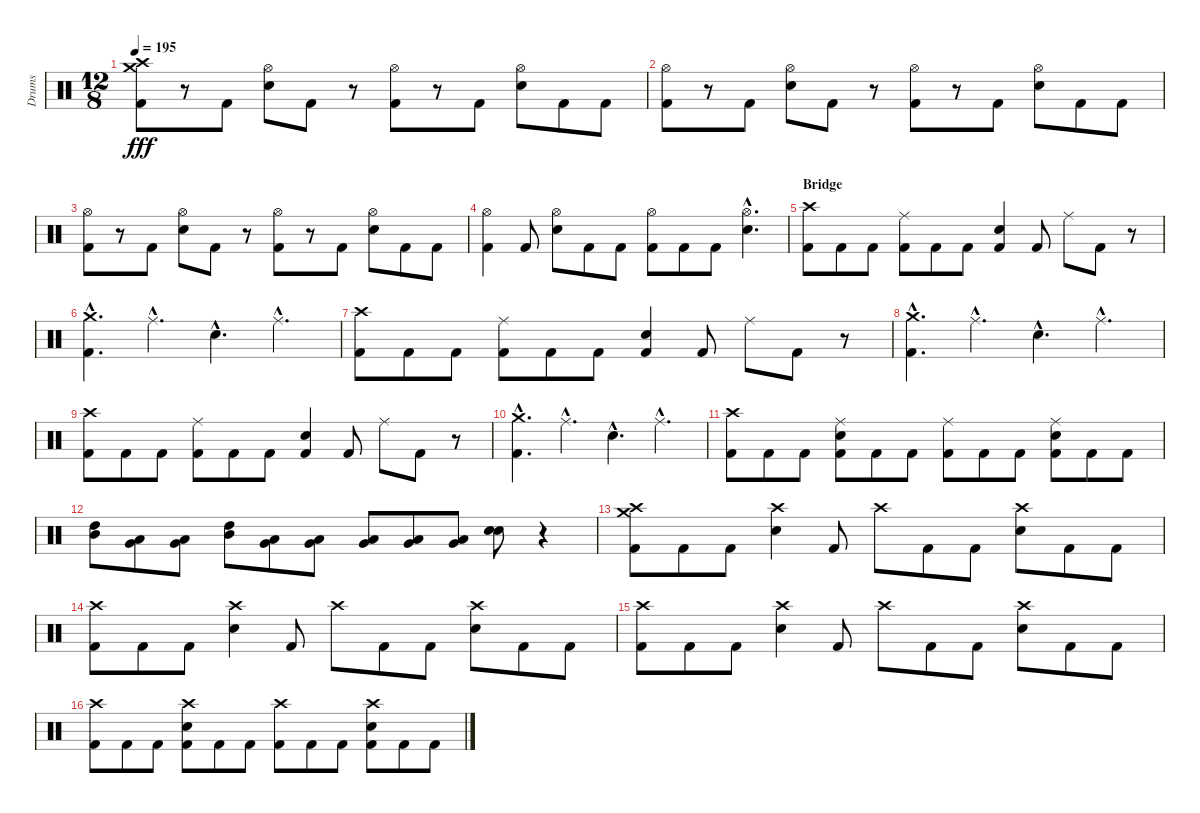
\track ("Drums" "Drums") {instrument percussion}
\staff {score}
\articulation defaults
\ts (12 8)
\tempo 195
\clef neutral
\ks c
("Crash high (hit)" "Crash medium (hit)" "Kick (hit) 2").8{dy fff} r.8 "Kick (hit) 2".8 ("Hi-Hat (open)" "Electric Snare (hit)").8 "Kick (hit) 2".8 r.8 ("Hi-Hat (open)" "Kick (hit) 2").8 r.8 "Kick (hit) 2".8 ("Hi-Hat (open)" "Electric Snare (hit)").8 "Kick (hit) 2".8 "Kick (hit) 2".8 |
("Hi-Hat (open)" "Kick (hit) 2").8 r.8 "Kick (hit) 2".8 ("Hi-Hat (open)" "Electric Snare (hit)").8 "Kick (hit) 2".8 r.8 ("Hi-Hat (open)" "Kick (hit) 2").8 r.8 "Kick (hit) 2".8 ("Hi-Hat (open)" "Electric Snare (hit)").8 "Kick (hit) 2".8 "Kick (hit) 2".8 |
("Hi-Hat (open)" "Kick (hit) 2").8 r.8 "Kick (hit) 2".8 ("Hi-Hat (open)" "Electric Snare (hit)").8 "Kick (hit) 2".8 r.8 ("Hi-Hat (open)" "Kick (hit) 2").8 r.8 "Kick (hit) 2".8 ("Hi-Hat (open)" "Electric Snare (hit)").8 "Kick (hit) 2".8 "Kick (hit) 2".8 |
("Hi-Hat (open)" "Kick (hit) 2").4 "Kick (hit) 2".8 ("Hi-Hat (open)" "Electric Snare (hit)").8 "Kick (hit) 2".8 "Kick (hit) 2".8 ("Hi-Hat (open)" "Kick (hit) 2").8 "Kick (hit) 2".8 "Kick (hit) 2".8 ("Hi-Hat (open)"{hac} "Electric Snare (hit)"{hac}).4{d} |
\section ("" "Bridge")
("Crash high (hit)" "Kick (hit) 2").8 "Kick (hit) 2".8 "Kick (hit) 2".8 ("Ride (middle)" "Kick (hit) 2").8 "Kick (hit) 2".8 "Kick (hit) 2".8 ("Electric Snare (hit)" "Kick (hit) 2").4 "Kick (hit) 2".8 "Ride (middle)".8 "Kick (hit) 2".8 r.8 |
("Crash medium (hit)"{hac} "Kick (hit) 2"{hac}).4{d} "Ride (middle)"{hac}.4{d} "Electric Snare (hit)"{hac}.4{d} "Ride (middle)"{hac}.4{d} |
("Crash high (hit)" "Kick (hit) 2").8 "Kick (hit) 2".8 "Kick (hit) 2".8 ("Ride (middle)" "Kick (hit) 2").8 "Kick (hit) 2".8 "Kick (hit) 2".8 ("Electric Snare (hit)" "Kick (hit) 2").4 "Kick (hit) 2".8 "Ride (middle)".8 "Kick (hit) 2".8 r.8 |
("Crash medium (hit)"{hac} "Kick (hit) 2"{hac}).4{d} "Ride (middle)"{hac}.4{d} "Electric Snare (hit)"{hac}.4{d} "Ride (middle)"{hac}.4{d} |
("Crash high (hit)" "Kick (hit) 2").8 "Kick (hit) 2".8 "Kick (hit) 2".8 ("Ride (middle)" "Kick (hit) 2").8 "Kick (hit) 2".8 "Kick (hit) 2".8 ("Electric Snare (hit)" "Kick (hit) 2").4 "Kick (hit) 2".8 "Ride (middle)".8 "Kick (hit) 2".8 r.8 |
("Crash medium (hit)"{hac} "Kick (hit) 2"{hac}).4{d} "Ride (middle)"{hac}.4{d} "Electric Snare (hit)"{hac}.4{d} "Ride (middle)"{hac}.4{d} |
("Crash high (hit)" "Kick (hit) 2").8 "Kick (hit) 2".8 "Kick (hit) 2".8 ("Ride (middle)" "Electric Snare (hit)" "Kick (hit) 2").8 "Kick (hit) 2".8 "Kick (hit) 2".8 ("Ride (middle)" "Kick (hit) 2").8 "Kick (hit) 2".8 "Kick (hit) 2".8 ("Ride (middle)" "Electric Snare (hit)" "Kick (hit) 2").8 "Kick (hit) 2".8 "Kick (hit) 2".8 |
("High Tom (hit)" "Mid Tom (hit)").8 ("Low Tom (hit)" "Very Low Tom (hit)").8 ("Low Tom (hit)" "Very Low Tom (hit)").8 ("High Tom (hit)" "Mid Tom (hit)").8 ("Low Tom (hit)" "Very Low Tom (hit)").8 ("Low Tom (hit)" "Very Low Tom (hit)").8 ("Low Tom (hit)" "Very Low Tom (hit)").8 ("Very Low Tom (hit)" "Low Floor Tom (hit)").8 ("Very Low Tom (hit)" "Low Floor Tom (hit)").8 ("Electric Snare (hit)" "Electric Snare (hit)").8 r.4 |
("Crash high (hit)" "Crash medium (hit)" "Kick (hit) 2").8 "Kick (hit) 2".8 "Kick (hit) 2".8 ("Crash high (hit)" "Electric Snare (hit)").4 "Kick (hit) 2".8 "Crash high (hit)".8 "Kick (hit) 2".8 "Kick (hit) 2".8 ("Crash high (hit)" "Electric Snare (hit)").8 "Kick (hit) 2".8 "Kick (hit) 2".8 |
("Crash high (hit)" "Kick (hit) 2").8 "Kick (hit) 2".8 "Kick (hit) 2".8 ("Crash high (hit)" "Electric Snare (hit)").4 "Kick (hit) 2".8 "Crash high (hit)".8 "Kick (hit) 2".8 "Kick (hit) 2".8 ("Crash high (hit)" "Electric Snare (hit)").8 "Kick (hit) 2".8 "Kick (hit) 2".8 |
("Crash high (hit)" "Kick (hit) 2").8 "Kick (hit) 2".8 "Kick (hit) 2".8 ("Crash high (hit)" "Electric Snare (hit)").4 "Kick (hit) 2".8 "Crash high (hit)".8 "Kick (hit) 2".8 "Kick (hit) 2".8 ("Crash high (hit)" "Electric Snare (hit)").8 "Kick (hit) 2".8 "Kick (hit) 2".8 |
("Crash high (hit)" "Kick (hit) 2").8 "Kick (hit) 2".8 "Kick (hit) 2".8 ("Crash high (hit)" "Electric Snare (hit)" "Kick (hit) 2").8 "Kick (hit) 2".8 "Kick (hit) 2".8 ("Crash high (hit)" "Kick (hit) 2").8 "Kick (hit) 2".8 "Kick (hit) 2".8 ("Crash high (hit)" "Electric Snare (hit)" "Kick (hit) 2").8 "Kick (hit) 2".8 "Kick (hit) 2".8
